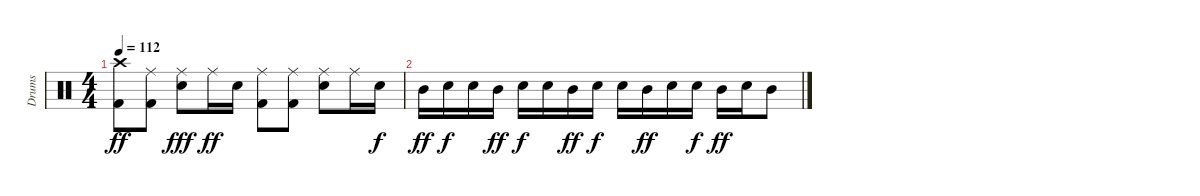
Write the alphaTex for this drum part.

\track ("Drums" "Drums") {instrument percussion}
\staff {score}
\articulation defaults
\ts (4 4)
\tempo 112
\clef neutral
\ks c
("Crash high (hit)" "Kick (hit) 2").8{dy ff volume 8} ("Ride (middle)" "Kick (hit) 2").8 ("Ride (middle)" "Electric Snare (hit)").8{dy fff} "Ride (middle)".16{dy ff} "Electric Snare (hit)".16 ("Ride (middle)" "Kick (hit) 2").8 ("Ride (middle)" "Kick (hit) 2").8 ("Ride (middle)" "Electric Snare (hit)").8 "Ride (middle)".16 "Electric Snare (hit)".16{dy f} |
"Mid Tom (hit)".16{dy ff volume 0} "Electric Snare (hit)".16{dy f} "Electric Snare (hit)".16 "Mid Tom (hit)".16{dy ff} "Electric Snare (hit)".16{dy f} "Electric Snare (hit)".16 "Mid Tom (hit)".16{dy ff} "Electric Snare (hit)".16{dy f} "Electric Snare (hit)".16 "Mid Tom (hit)".16{dy ff} "Electric Snare (hit)".16 "Electric Snare (hit)".16{dy f} "Mid Tom (hit)".16{dy ff} "Electric Snare (hit)".16 "Mid Tom (hit)".8
